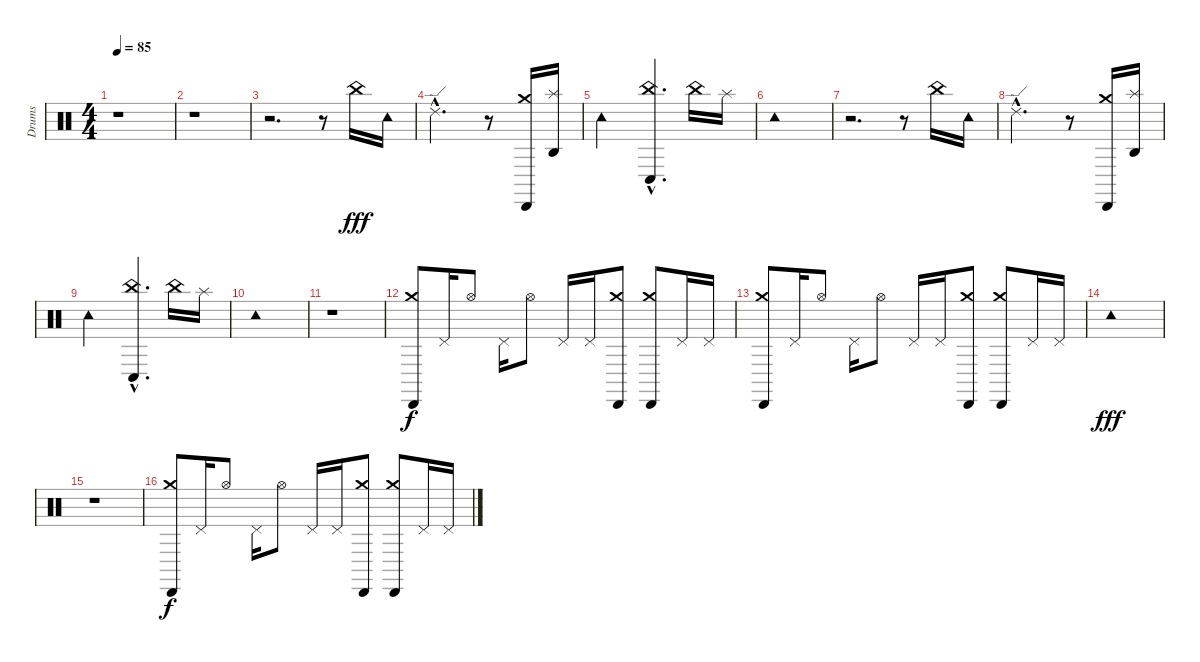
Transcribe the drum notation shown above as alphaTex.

\track ("Drums" "Drums") {instrument percussion}
\staff {score}
\articulation defaults
\ts (4 4)
\tempo 85
\clef neutral
\ks c
r.1{dy f} |
r.1 |
r.2{d} r.8 "China (hit)".16{dy fff} "Tambourine (hit)".16 |
"Ride (edge) 2"{hac}.2{d} r.8 ("Crash medium (hit)" "Cabasa (hit)").16 ("Splash (hit)" "Agogo high (hit)").16 |
"Tambourine (hit)".2 ("China (hit)"{hac} "Conga low (hit)"{hac}).4{d} "China (hit)".16 "Splash (hit)".16 |
"Tambourine (hit)".1 |
r.2{d} r.8 "China (hit)".16 "Tambourine (hit)".16 |
"Ride (edge) 2"{hac}.2{d} r.8 ("Crash medium (hit)" "Cabasa (hit)").16 ("Splash (hit)" "Agogo high (hit)").16 |
"Tambourine (hit)".2 ("China (hit)"{hac} "Conga low (hit)"{hac}).4{d} "China (hit)".16 "Splash (hit)".16 |
"Tambourine (hit)".1 |
r.1 |
("Crash medium (hit)" "Cabasa (hit)").8{dy f} "Pedal Hi-Hat (hit)".16 "Hi-Hat (open)".8 "Pedal Hi-Hat (hit)".16 "Hi-Hat (open)".8 "Pedal Hi-Hat (hit)".16 "Pedal Hi-Hat (hit)".16 ("Crash medium (hit)" "Cabasa (hit)").8 ("Crash medium (hit)" "Cabasa (hit)").8 "Pedal Hi-Hat (hit)".16 "Pedal Hi-Hat (hit)".16 |
("Crash medium (hit)" "Cabasa (hit)").8 "Pedal Hi-Hat (hit)".16 "Hi-Hat (open)".8 "Pedal Hi-Hat (hit)".16 "Hi-Hat (open)".8 "Pedal Hi-Hat (hit)".16 "Pedal Hi-Hat (hit)".16 ("Crash medium (hit)" "Cabasa (hit)").8 ("Crash medium (hit)" "Cabasa (hit)").8 "Pedal Hi-Hat (hit)".16 "Pedal Hi-Hat (hit)".16 |
"Tambourine (hit)".1{dy fff} |
r.1 |
("Crash medium (hit)" "Cabasa (hit)").8{dy f} "Pedal Hi-Hat (hit)".16 "Hi-Hat (open)".8 "Pedal Hi-Hat (hit)".16 "Hi-Hat (open)".8 "Pedal Hi-Hat (hit)".16 "Pedal Hi-Hat (hit)".16 ("Crash medium (hit)" "Cabasa (hit)").8 ("Crash medium (hit)" "Cabasa (hit)").8 "Pedal Hi-Hat (hit)".16 "Pedal Hi-Hat (hit)".16
